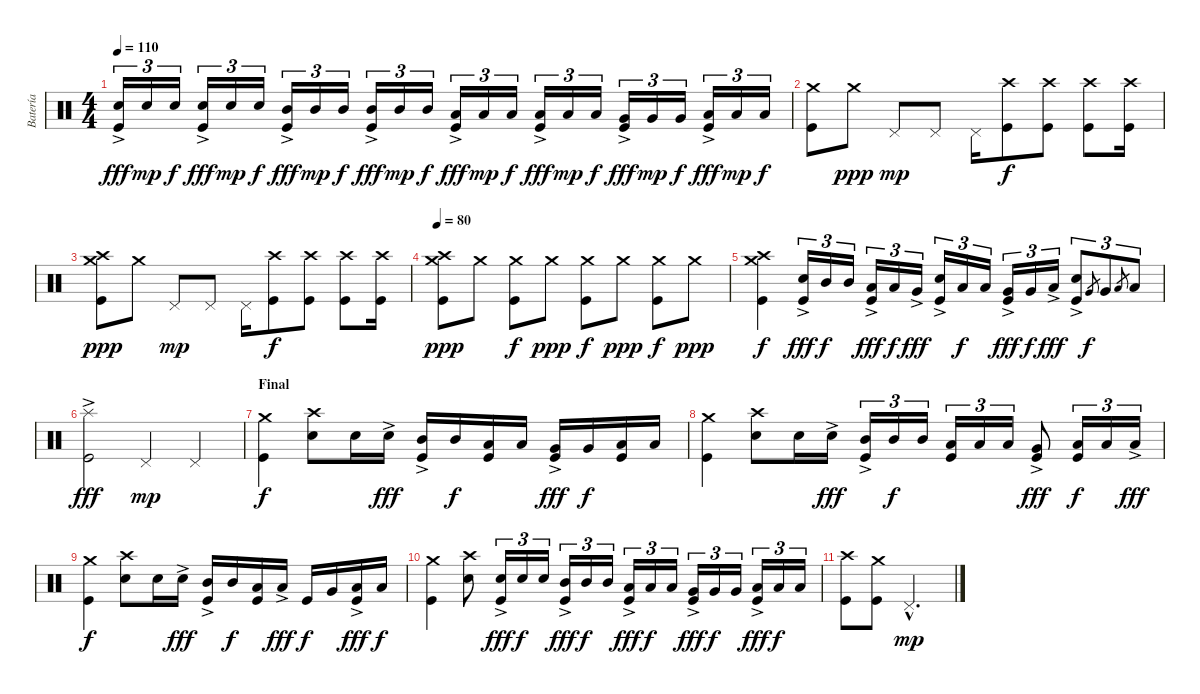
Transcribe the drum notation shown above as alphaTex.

\track ("Batería" "Batería") {instrument percussion}
\staff {score}
\articulation defaults
\ts (4 4)
\tempo 110
\clef neutral
\ks c
("Kick (hit)" "Electric Snare (hit)"{ac}).16{tu (3 2) dy fff} "Electric Snare (hit)".16{tu (3 2) dy mp} "Electric Snare (hit)".16{tu (3 2) dy f} ("Kick (hit)" "Electric Snare (hit)"{ac}).16{tu (3 2) dy fff} "Electric Snare (hit)".16{tu (3 2) dy mp} "Electric Snare (hit)".16{tu (3 2) dy f} ("Kick (hit)" "Mid Tom (hit)"{ac}).16{tu (3 2) dy fff} "Mid Tom (hit)".16{tu (3 2) dy mp} "Mid Tom (hit)".16{tu (3 2) dy f} ("Kick (hit)" "Mid Tom (hit)"{ac}).16{tu (3 2) dy fff} "Mid Tom (hit)".16{tu (3 2) dy mp} "Mid Tom (hit)".16{tu (3 2) dy f} ("Kick (hit)" "Low Tom (hit)"{ac}).16{tu (3 2) dy fff} "Low Tom (hit)".16{tu (3 2) dy mp} "Low Tom (hit)".16{tu (3 2) dy f} ("Kick (hit)" "Low Tom (hit)"{ac}).16{tu (3 2) dy fff} "Low Tom (hit)".16{tu (3 2) dy mp} "Low Tom (hit)".16{tu (3 2) dy f} ("Kick (hit)" "Very Low Tom (hit)"{ac}).16{tu (3 2) dy fff} "Very Low Tom (hit)".16{tu (3 2) dy mp} "Very Low Tom (hit)".16{tu (3 2) dy f} ("Kick (hit)" "Low Floor Tom (hit)"{ac}).16{tu (3 2) dy fff} "Low Floor Tom (hit)".16{tu (3 2) dy mp} "Low Floor Tom (hit)".16{tu (3 2) dy f} |
("Kick (hit)" "Crash medium (hit)").8 "Crash medium (hit)".8{dy ppp} "Pedal Hi-Hat (hit)".8{dy mp} "Pedal Hi-Hat (hit)".8 "Pedal Hi-Hat (hit)".16 ("Kick (hit)" "Crash high (hit)").8{dy f} ("Kick (hit)" "Crash high (hit)").8 ("Kick (hit)" "Crash high (hit)").8 ("Kick (hit)" "Crash high (hit)").16 |
("Kick (hit)" "Crash medium (hit)" "Crash high (hit)").8{dy ppp} "Crash medium (hit)".8 "Pedal Hi-Hat (hit)".8{dy mp} "Pedal Hi-Hat (hit)".8 "Pedal Hi-Hat (hit)".16 ("Kick (hit)" "Crash high (hit)").8{dy f} ("Kick (hit)" "Crash high (hit)").8 ("Kick (hit)" "Crash high (hit)").8 ("Kick (hit)" "Crash high (hit)").16 |
\tempo 80
("Kick (hit)" "Crash medium (hit)" "Crash high (hit)").8{dy ppp} "Crash medium (hit)".8 ("Kick (hit)" "Crash medium (hit)").8{dy f} "Crash medium (hit)".8{dy ppp} ("Kick (hit)" "Crash medium (hit)").8{dy f} "Crash medium (hit)".8{dy ppp} ("Kick (hit)" "Crash medium (hit)").8{dy f} "Crash medium (hit)".8{dy ppp} |
("Kick (hit)" "Crash medium (hit)" "Crash high (hit)").4{dy f} ("Kick (hit)" "Electric Snare (hit)"{ac}).16{tu (3 2) dy fff} "Mid Tom (hit)".16{tu (3 2) dy f} "Mid Tom (hit)".16{tu (3 2)} ("Kick (hit)" "Low Tom (hit)"{ac}).16{tu (3 2) dy fff} "Low Tom (hit)".16{tu (3 2) dy f} "Very Low Tom (hit)"{ac}.16{tu (3 2) dy fff} ("Kick (hit)" "Electric Snare (hit)"{ac}).16{tu (3 2)} "Low Tom (hit)".16{tu (3 2) dy f} "Low Tom (hit)".16{tu (3 2)} ("Kick (hit)" "Very Low Tom (hit)"{ac}).16{tu (3 2) dy fff} "Very Low Tom (hit)".16{tu (3 2) dy f} "Low Floor Tom (hit)"{ac}.16{tu (3 2) dy fff} ("Kick (hit)" "Electric Snare (hit)"{ac}).8{tu (3 2)} "Very Low Tom (hit)".8{gr dy f} "Very Low Tom (hit)".8{tu (3 2)} "Low Floor Tom (hit)".8{gr} "Low Floor Tom (hit)".8{tu (3 2)} |
("Kick (hit)" "Splash (hit)"{ac}).2{dy fff} "Pedal Hi-Hat (hit)".4{dy mp} "Pedal Hi-Hat (hit)".4 |
\section ("" "Final")
("Kick (hit)" "Crash medium (hit)").4{dy f} ("Electric Snare (hit)" "Crash high (hit)").8 "Electric Snare (hit)".16 "Electric Snare (hit)"{ac}.16{dy fff} ("Kick (hit)" "Mid Tom (hit)"{ac}).16 "Mid Tom (hit)".16{dy f} ("Kick (hit)" "Low Tom (hit)").16 "Low Tom (hit)".16 ("Kick (hit)" "Very Low Tom (hit)"{ac}).16{dy fff} "Very Low Tom (hit)".16{dy f} ("Kick (hit)" "Low Floor Tom (hit)").16 "Low Floor Tom (hit)".16 |
("Kick (hit)" "Crash medium (hit)").4 ("Electric Snare (hit)" "Crash high (hit)").8 "Electric Snare (hit)".16 "Electric Snare (hit)"{ac}.16{dy fff} ("Kick (hit)" "Mid Tom (hit)"{ac}).16{tu (3 2)} "Mid Tom (hit)".16{tu (3 2) dy f} "Mid Tom (hit)".16{tu (3 2)} ("Kick (hit)" "Low Tom (hit)").16{tu (3 2)} "Low Tom (hit)".16{tu (3 2)} "Low Tom (hit)".16{tu (3 2)} ("Kick (hit)" "Very Low Tom (hit)"{ac}).8{dy fff} ("Kick (hit)" "Low Floor Tom (hit)").16{tu (3 2) dy f} "Low Floor Tom (hit)".16{tu (3 2)} "Low Floor Tom (hit)"{ac}.16{tu (3 2) dy fff} |
("Kick (hit)" "Crash medium (hit)").4{dy f} ("Electric Snare (hit)" "Crash high (hit)").8 "Electric Snare (hit)".16 "Electric Snare (hit)"{ac}.16{dy fff} ("Kick (hit)" "Mid Tom (hit)"{ac}).16 "Mid Tom (hit)".16{dy f} ("Kick (hit)" "Low Tom (hit)").16 "Low Tom (hit)"{ac}.16{dy fff} "Kick (hit)".16{dy f} "Very Low Tom (hit)".16 ("Kick (hit)" "Low Floor Tom (hit)"{ac}).16{dy fff} "Low Floor Tom (hit)".16{dy f} |
("Kick (hit)" "Crash medium (hit)").4 ("Electric Snare (hit)" "Crash high (hit)").8 ("Kick (hit)" "Electric Snare (hit)"{ac}).16{tu (3 2) dy fff} "Electric Snare (hit)".16{tu (3 2) dy f} "Electric Snare (hit)".16{tu (3 2)} ("Kick (hit)" "Mid Tom (hit)"{ac}).16{tu (3 2) dy fff} "Mid Tom (hit)".16{tu (3 2) dy f} "Mid Tom (hit)".16{tu (3 2)} ("Kick (hit)" "Low Tom (hit)"{ac}).16{tu (3 2) dy fff} "Low Tom (hit)".16{tu (3 2) dy f} "Low Tom (hit)".16{tu (3 2)} ("Kick (hit)" "Very Low Tom (hit)"{ac}).16{tu (3 2) dy fff} "Very Low Tom (hit)".16{tu (3 2) dy f} "Very Low Tom (hit)".16{tu (3 2)} ("Kick (hit)" "Low Floor Tom (hit)"{ac}).16{tu (3 2) dy fff} "Low Floor Tom (hit)".16{tu (3 2) dy f} "Low Floor Tom (hit)".16{tu (3 2)} |
("Kick (hit)" "Crash high (hit)").8 ("Kick (hit)" "Crash medium (hit)").8 "Pedal Hi-Hat (hit)"{hac}.2{d dy mp}
